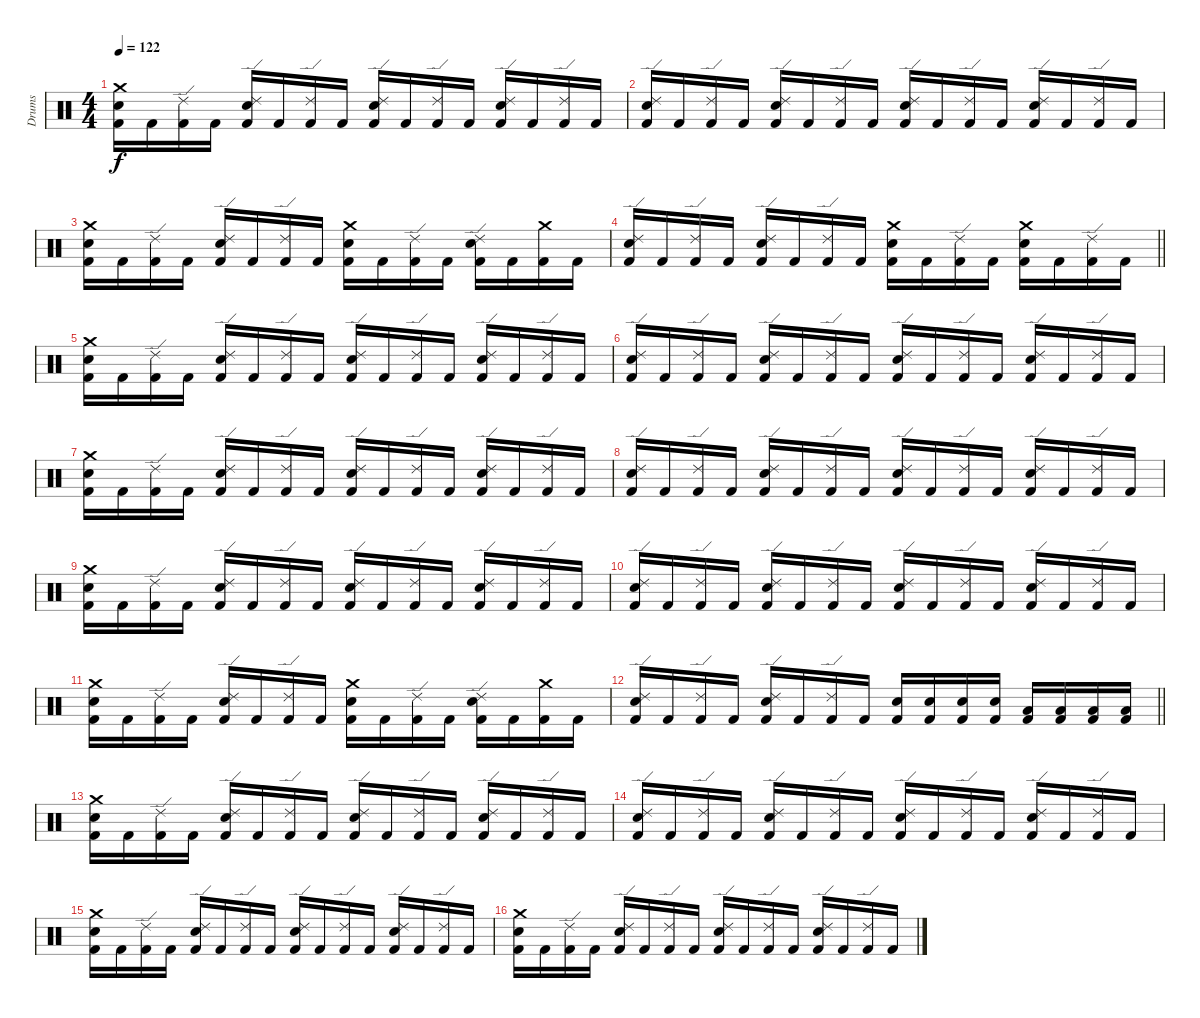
\track ("Drums" "Drums") {instrument percussion}
\staff {score}
\articulation defaults
\ts (4 4)
\tempo 122
\clef neutral
\ks c
("Kick (hit) 2" "Snare (hit) 2" "Crash medium (hit)").16{dy f} "Kick (hit) 2".16 ("Kick (hit) 2" "Ride (edge) 2").16 "Kick (hit) 2".16 ("Kick (hit) 2" "Snare (hit) 2" "Ride (edge) 2").16 "Kick (hit) 2".16 ("Kick (hit) 2" "Ride (edge) 2").16 "Kick (hit) 2".16 ("Kick (hit) 2" "Snare (hit) 2" "Ride (edge) 2").16 "Kick (hit) 2".16 ("Kick (hit) 2" "Ride (edge) 2").16 "Kick (hit) 2".16 ("Kick (hit) 2" "Snare (hit) 2" "Ride (edge) 2").16 "Kick (hit) 2".16 ("Kick (hit) 2" "Ride (edge) 2").16 "Kick (hit) 2".16 |
("Kick (hit) 2" "Snare (hit) 2" "Ride (edge) 2").16 "Kick (hit) 2".16 ("Kick (hit) 2" "Ride (edge) 2").16 "Kick (hit) 2".16 ("Kick (hit) 2" "Snare (hit) 2" "Ride (edge) 2").16 "Kick (hit) 2".16 ("Kick (hit) 2" "Ride (edge) 2").16 "Kick (hit) 2".16 ("Kick (hit) 2" "Snare (hit) 2" "Ride (edge) 2").16 "Kick (hit) 2".16 ("Kick (hit) 2" "Ride (edge) 2").16 "Kick (hit) 2".16 ("Kick (hit) 2" "Snare (hit) 2" "Ride (edge) 2").16 "Kick (hit) 2".16 ("Kick (hit) 2" "Ride (edge) 2").16 "Kick (hit) 2".16 |
("Kick (hit) 2" "Snare (hit) 2" "Crash medium (hit)").16 "Kick (hit) 2".16 ("Kick (hit) 2" "Ride (edge) 2").16 "Kick (hit) 2".16 ("Kick (hit) 2" "Snare (hit) 2" "Ride (edge) 2").16 "Kick (hit) 2".16 ("Kick (hit) 2" "Ride (edge) 2").16 "Kick (hit) 2".16 ("Kick (hit) 2" "Snare (hit) 2" "Crash medium (hit)").16 "Kick (hit) 2".16 ("Kick (hit) 2" "Ride (edge) 2").16 "Kick (hit) 2".16 ("Kick (hit) 2" "Snare (hit) 2" "Ride (edge) 2").16 "Kick (hit) 2".16 ("Kick (hit) 2" "Crash medium (hit)").16 "Kick (hit) 2".16 |
\barLineRight lightlight
("Kick (hit) 2" "Snare (hit) 2" "Ride (edge) 2").16 "Kick (hit) 2".16 ("Kick (hit) 2" "Ride (edge) 2").16 "Kick (hit) 2".16 ("Kick (hit) 2" "Snare (hit) 2" "Ride (edge) 2").16 "Kick (hit) 2".16 ("Kick (hit) 2" "Ride (edge) 2").16 "Kick (hit) 2".16 ("Kick (hit) 2" "Snare (hit) 2" "Crash medium (hit)").16 "Kick (hit) 2".16 ("Kick (hit) 2" "Ride (edge) 2").16 "Kick (hit) 2".16 ("Kick (hit) 2" "Snare (hit) 2" "Crash medium (hit)").16 "Kick (hit) 2".16 ("Kick (hit) 2" "Ride (edge) 2").16 "Kick (hit) 2".16 |
\section ("" "")
("Kick (hit) 2" "Snare (hit) 2" "Crash medium (hit)").16 "Kick (hit) 2".16 ("Kick (hit) 2" "Ride (edge) 2").16 "Kick (hit) 2".16 ("Kick (hit) 2" "Snare (hit) 2" "Ride (edge) 2").16 "Kick (hit) 2".16 ("Kick (hit) 2" "Ride (edge) 2").16 "Kick (hit) 2".16 ("Kick (hit) 2" "Snare (hit) 2" "Ride (edge) 2").16 "Kick (hit) 2".16 ("Kick (hit) 2" "Ride (edge) 2").16 "Kick (hit) 2".16 ("Kick (hit) 2" "Snare (hit) 2" "Ride (edge) 2").16 "Kick (hit) 2".16 ("Kick (hit) 2" "Ride (edge) 2").16 "Kick (hit) 2".16 |
("Kick (hit) 2" "Snare (hit) 2" "Ride (edge) 2").16 "Kick (hit) 2".16 ("Kick (hit) 2" "Ride (edge) 2").16 "Kick (hit) 2".16 ("Kick (hit) 2" "Snare (hit) 2" "Ride (edge) 2").16 "Kick (hit) 2".16 ("Kick (hit) 2" "Ride (edge) 2").16 "Kick (hit) 2".16 ("Kick (hit) 2" "Snare (hit) 2" "Ride (edge) 2").16 "Kick (hit) 2".16 ("Kick (hit) 2" "Ride (edge) 2").16 "Kick (hit) 2".16 ("Kick (hit) 2" "Snare (hit) 2" "Ride (edge) 2").16 "Kick (hit) 2".16 ("Kick (hit) 2" "Ride (edge) 2").16 "Kick (hit) 2".16 |
("Kick (hit) 2" "Snare (hit) 2" "Crash medium (hit)").16 "Kick (hit) 2".16 ("Kick (hit) 2" "Ride (edge) 2").16 "Kick (hit) 2".16 ("Kick (hit) 2" "Snare (hit) 2" "Ride (edge) 2").16 "Kick (hit) 2".16 ("Kick (hit) 2" "Ride (edge) 2").16 "Kick (hit) 2".16 ("Kick (hit) 2" "Snare (hit) 2" "Ride (edge) 2").16 "Kick (hit) 2".16 ("Kick (hit) 2" "Ride (edge) 2").16 "Kick (hit) 2".16 ("Kick (hit) 2" "Snare (hit) 2" "Ride (edge) 2").16 "Kick (hit) 2".16 ("Kick (hit) 2" "Ride (edge) 2").16 "Kick (hit) 2".16 |
("Kick (hit) 2" "Snare (hit) 2" "Ride (edge) 2").16 "Kick (hit) 2".16 ("Kick (hit) 2" "Ride (edge) 2").16 "Kick (hit) 2".16 ("Kick (hit) 2" "Snare (hit) 2" "Ride (edge) 2").16 "Kick (hit) 2".16 ("Kick (hit) 2" "Ride (edge) 2").16 "Kick (hit) 2".16 ("Kick (hit) 2" "Snare (hit) 2" "Ride (edge) 2").16 "Kick (hit) 2".16 ("Kick (hit) 2" "Ride (edge) 2").16 "Kick (hit) 2".16 ("Kick (hit) 2" "Snare (hit) 2" "Ride (edge) 2").16 "Kick (hit) 2".16 ("Kick (hit) 2" "Ride (edge) 2").16 "Kick (hit) 2".16 |
("Kick (hit) 2" "Snare (hit) 2" "Crash medium (hit)").16 "Kick (hit) 2".16 ("Kick (hit) 2" "Ride (edge) 2").16 "Kick (hit) 2".16 ("Kick (hit) 2" "Snare (hit) 2" "Ride (edge) 2").16 "Kick (hit) 2".16 ("Kick (hit) 2" "Ride (edge) 2").16 "Kick (hit) 2".16 ("Kick (hit) 2" "Snare (hit) 2" "Ride (edge) 2").16 "Kick (hit) 2".16 ("Kick (hit) 2" "Ride (edge) 2").16 "Kick (hit) 2".16 ("Kick (hit) 2" "Snare (hit) 2" "Ride (edge) 2").16 "Kick (hit) 2".16 ("Kick (hit) 2" "Ride (edge) 2").16 "Kick (hit) 2".16 |
("Kick (hit) 2" "Snare (hit) 2" "Ride (edge) 2").16 "Kick (hit) 2".16 ("Kick (hit) 2" "Ride (edge) 2").16 "Kick (hit) 2".16 ("Kick (hit) 2" "Snare (hit) 2" "Ride (edge) 2").16 "Kick (hit) 2".16 ("Kick (hit) 2" "Ride (edge) 2").16 "Kick (hit) 2".16 ("Kick (hit) 2" "Snare (hit) 2" "Ride (edge) 2").16 "Kick (hit) 2".16 ("Kick (hit) 2" "Ride (edge) 2").16 "Kick (hit) 2".16 ("Kick (hit) 2" "Snare (hit) 2" "Ride (edge) 2").16 "Kick (hit) 2".16 ("Kick (hit) 2" "Ride (edge) 2").16 "Kick (hit) 2".16 |
("Kick (hit) 2" "Snare (hit) 2" "Crash medium (hit)").16 "Kick (hit) 2".16 ("Kick (hit) 2" "Ride (edge) 2").16 "Kick (hit) 2".16 ("Kick (hit) 2" "Snare (hit) 2" "Ride (edge) 2").16 "Kick (hit) 2".16 ("Kick (hit) 2" "Ride (edge) 2").16 "Kick (hit) 2".16 ("Kick (hit) 2" "Snare (hit) 2" "Crash medium (hit)").16 "Kick (hit) 2".16 ("Kick (hit) 2" "Ride (edge) 2").16 "Kick (hit) 2".16 ("Kick (hit) 2" "Snare (hit) 2" "Ride (edge) 2").16 "Kick (hit) 2".16 ("Kick (hit) 2" "Crash medium (hit)").16 "Kick (hit) 2".16 |
\barLineRight lightlight
("Kick (hit) 2" "Snare (hit) 2" "Ride (edge) 2").16 "Kick (hit) 2".16 ("Kick (hit) 2" "Ride (edge) 2").16 "Kick (hit) 2".16 ("Kick (hit) 2" "Snare (hit) 2" "Ride (edge) 2").16 "Kick (hit) 2".16 ("Kick (hit) 2" "Ride (edge) 2").16 "Kick (hit) 2".16 ("Kick (hit) 2" "Snare (hit) 2").16 ("Kick (hit) 2" "Snare (hit) 2").16 ("Kick (hit) 2" "Snare (hit) 2").16 ("Kick (hit) 2" "Snare (hit) 2").16 ("Kick (hit) 2" "Low Tom (hit)").16 ("Kick (hit) 2" "Low Tom (hit)").16 ("Kick (hit) 2" "Low Tom (hit)").16 ("Kick (hit) 2" "Low Tom (hit)").16 |
\section ("" "")
("Kick (hit) 2" "Snare (hit) 2" "Crash medium (hit)").16 "Kick (hit) 2".16 ("Kick (hit) 2" "Ride (edge) 2").16 "Kick (hit) 2".16 ("Kick (hit) 2" "Snare (hit) 2" "Ride (edge) 2").16 "Kick (hit) 2".16 ("Kick (hit) 2" "Ride (edge) 2").16 "Kick (hit) 2".16 ("Kick (hit) 2" "Snare (hit) 2" "Ride (edge) 2").16 "Kick (hit) 2".16 ("Kick (hit) 2" "Ride (edge) 2").16 "Kick (hit) 2".16 ("Kick (hit) 2" "Snare (hit) 2" "Ride (edge) 2").16 "Kick (hit) 2".16 ("Kick (hit) 2" "Ride (edge) 2").16 "Kick (hit) 2".16 |
("Kick (hit) 2" "Snare (hit) 2" "Ride (edge) 2").16 "Kick (hit) 2".16 ("Kick (hit) 2" "Ride (edge) 2").16 "Kick (hit) 2".16 ("Kick (hit) 2" "Snare (hit) 2" "Ride (edge) 2").16 "Kick (hit) 2".16 ("Kick (hit) 2" "Ride (edge) 2").16 "Kick (hit) 2".16 ("Kick (hit) 2" "Snare (hit) 2" "Ride (edge) 2").16 "Kick (hit) 2".16 ("Kick (hit) 2" "Ride (edge) 2").16 "Kick (hit) 2".16 ("Kick (hit) 2" "Snare (hit) 2" "Ride (edge) 2").16 "Kick (hit) 2".16 ("Kick (hit) 2" "Ride (edge) 2").16 "Kick (hit) 2".16 |
("Kick (hit) 2" "Snare (hit) 2" "Crash medium (hit)").16 "Kick (hit) 2".16 ("Kick (hit) 2" "Ride (edge) 2").16 "Kick (hit) 2".16 ("Kick (hit) 2" "Snare (hit) 2" "Ride (edge) 2").16 "Kick (hit) 2".16 ("Kick (hit) 2" "Ride (edge) 2").16 "Kick (hit) 2".16 ("Kick (hit) 2" "Snare (hit) 2" "Ride (edge) 2").16 "Kick (hit) 2".16 ("Kick (hit) 2" "Ride (edge) 2").16 "Kick (hit) 2".16 ("Kick (hit) 2" "Snare (hit) 2" "Ride (edge) 2").16 "Kick (hit) 2".16 ("Kick (hit) 2" "Ride (edge) 2").16 "Kick (hit) 2".16 |
("Kick (hit) 2" "Snare (hit) 2" "Crash medium (hit)").16 "Kick (hit) 2".16 ("Kick (hit) 2" "Ride (edge) 2").16 "Kick (hit) 2".16 ("Kick (hit) 2" "Snare (hit) 2" "Ride (edge) 2").16 "Kick (hit) 2".16 ("Kick (hit) 2" "Ride (edge) 2").16 "Kick (hit) 2".16 ("Kick (hit) 2" "Snare (hit) 2" "Ride (edge) 2").16 "Kick (hit) 2".16 ("Kick (hit) 2" "Ride (edge) 2").16 "Kick (hit) 2".16 ("Kick (hit) 2" "Snare (hit) 2" "Ride (edge) 2").16 "Kick (hit) 2".16 ("Kick (hit) 2" "Ride (edge) 2").16 "Kick (hit) 2".16
